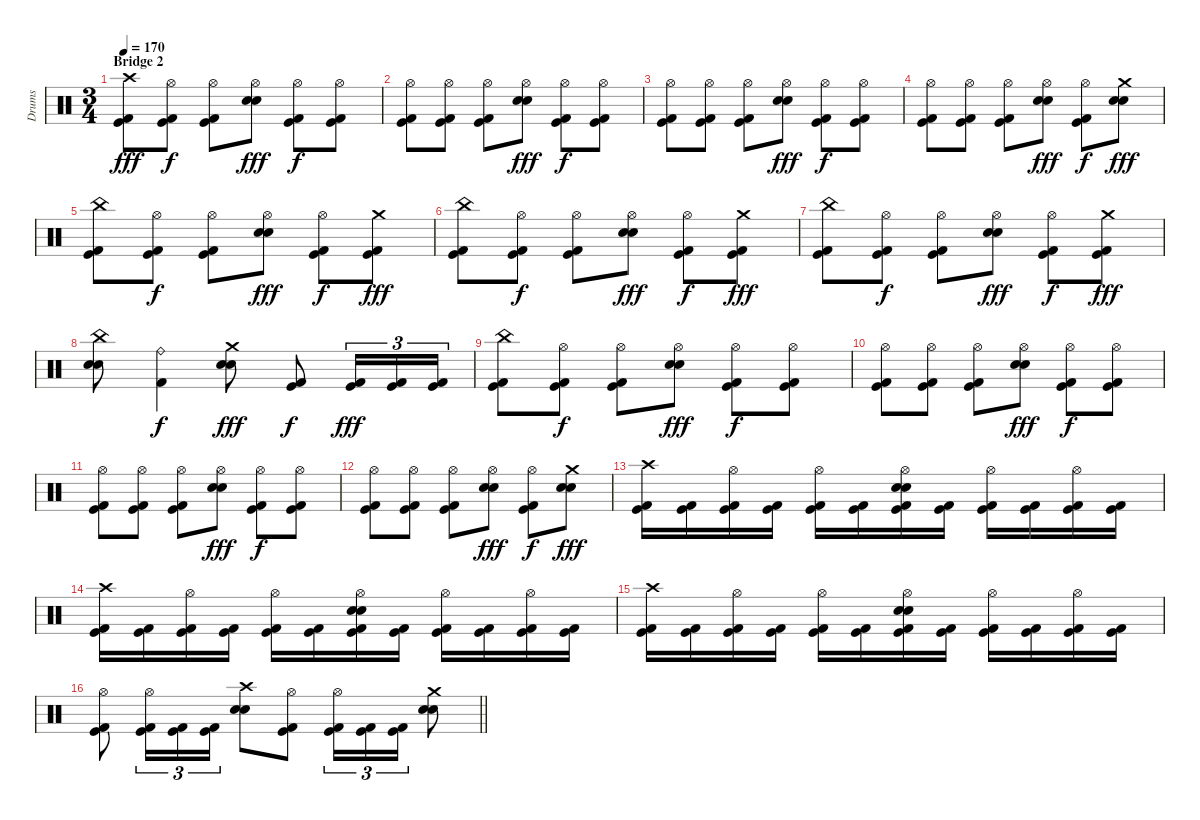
\track ("Drums" "Drums") {instrument percussion}
\staff {score}
\articulation defaults
\ts (3 4)
\section ("" "Bridge 2")
\tempo 170
\clef neutral
\ks c
("Crash high (hit)" "Kick (hit)" "Kick (hit) 2").8{dy fff} ("Hi-Hat (open)" "Kick (hit)" "Kick (hit) 2").8{dy f} ("Hi-Hat (open)" "Kick (hit)" "Kick (hit) 2").8 ("Hi-Hat (open)" "Electric Snare (hit)" "Electric Snare (hit)").8{dy fff} ("Hi-Hat (open)" "Kick (hit)" "Kick (hit) 2").8{dy f} ("Hi-Hat (open)" "Kick (hit)" "Kick (hit) 2").8 |
("Hi-Hat (open)" "Kick (hit)" "Kick (hit) 2").8 ("Hi-Hat (open)" "Kick (hit)" "Kick (hit) 2").8 ("Hi-Hat (open)" "Kick (hit)" "Kick (hit) 2").8 ("Hi-Hat (open)" "Electric Snare (hit)" "Electric Snare (hit)").8{dy fff} ("Hi-Hat (open)" "Kick (hit)" "Kick (hit) 2").8{dy f} ("Hi-Hat (open)" "Kick (hit)" "Kick (hit) 2").8 |
("Hi-Hat (open)" "Kick (hit)" "Kick (hit) 2").8 ("Hi-Hat (open)" "Kick (hit)" "Kick (hit) 2").8 ("Hi-Hat (open)" "Kick (hit)" "Kick (hit) 2").8 ("Hi-Hat (open)" "Electric Snare (hit)" "Electric Snare (hit)").8{dy fff} ("Hi-Hat (open)" "Kick (hit)" "Kick (hit) 2").8{dy f} ("Hi-Hat (open)" "Kick (hit)" "Kick (hit) 2").8 |
("Hi-Hat (open)" "Kick (hit)" "Kick (hit) 2").8 ("Hi-Hat (open)" "Kick (hit)" "Kick (hit) 2").8 ("Hi-Hat (open)" "Kick (hit)" "Kick (hit) 2").8 ("Hi-Hat (open)" "Electric Snare (hit)" "Electric Snare (hit)").8{dy fff} ("Hi-Hat (open)" "Kick (hit)" "Kick (hit) 2").8{dy f} ("Crash medium (hit)" "Electric Snare (hit)" "Electric Snare (hit)").8{dy fff} |
("China (hit)" "Kick (hit)" "Kick (hit) 2").8 ("Hi-Hat (open)" "Kick (hit)" "Kick (hit) 2").8{dy f} ("Hi-Hat (open)" "Kick (hit)" "Kick (hit) 2").8 ("Hi-Hat (open)" "Electric Snare (hit)" "Electric Snare (hit)").8{dy fff} ("Hi-Hat (open)" "Kick (hit)" "Kick (hit) 2").8{dy f} ("Crash medium (hit)" "Kick (hit)" "Kick (hit) 2").8{dy fff} |
("China (hit)" "Kick (hit)" "Kick (hit) 2").8 ("Hi-Hat (open)" "Kick (hit)" "Kick (hit) 2").8{dy f} ("Hi-Hat (open)" "Kick (hit)" "Kick (hit) 2").8 ("Hi-Hat (open)" "Electric Snare (hit)" "Electric Snare (hit)").8{dy fff} ("Hi-Hat (open)" "Kick (hit)" "Kick (hit) 2").8{dy f} ("Crash medium (hit)" "Kick (hit)" "Kick (hit) 2").8{dy fff} |
("China (hit)" "Kick (hit)" "Kick (hit) 2").8 ("Hi-Hat (open)" "Kick (hit)" "Kick (hit) 2").8{dy f} ("Hi-Hat (open)" "Kick (hit)" "Kick (hit) 2").8 ("Hi-Hat (open)" "Electric Snare (hit)" "Electric Snare (hit)").8{dy fff} ("Hi-Hat (open)" "Kick (hit)" "Kick (hit) 2").8{dy f} ("Crash medium (hit)" "Kick (hit)" "Kick (hit) 2").8{dy fff} |
("China (hit)" "Electric Snare (hit)" "Electric Snare (hit)").8 ("Ride (bell)" "Kick (hit) 2").4{dy f} ("Crash medium (hit)" "Electric Snare (hit)" "Electric Snare (hit)").8{dy fff} ("Kick (hit)" "Kick (hit) 2").8{dy f} ("Kick (hit)" "Kick (hit) 2").16{tu (3 2) dy fff} ("Kick (hit)" "Kick (hit) 2").16{tu (3 2)} ("Kick (hit)" "Kick (hit) 2").16{tu (3 2)} |
("China (hit)" "Kick (hit)" "Kick (hit) 2").8 ("Hi-Hat (open)" "Kick (hit)" "Kick (hit) 2").8{dy f} ("Hi-Hat (open)" "Kick (hit)" "Kick (hit) 2").8 ("Hi-Hat (open)" "Electric Snare (hit)" "Electric Snare (hit)").8{dy fff} ("Hi-Hat (open)" "Kick (hit)" "Kick (hit) 2").8{dy f} ("Hi-Hat (open)" "Kick (hit)" "Kick (hit) 2").8 |
("Hi-Hat (open)" "Kick (hit)" "Kick (hit) 2").8 ("Hi-Hat (open)" "Kick (hit)" "Kick (hit) 2").8 ("Hi-Hat (open)" "Kick (hit)" "Kick (hit) 2").8 ("Hi-Hat (open)" "Electric Snare (hit)" "Electric Snare (hit)").8{dy fff} ("Hi-Hat (open)" "Kick (hit)" "Kick (hit) 2").8{dy f} ("Hi-Hat (open)" "Kick (hit)" "Kick (hit) 2").8 |
("Hi-Hat (open)" "Kick (hit)" "Kick (hit) 2").8 ("Hi-Hat (open)" "Kick (hit)" "Kick (hit) 2").8 ("Hi-Hat (open)" "Kick (hit)" "Kick (hit) 2").8 ("Hi-Hat (open)" "Electric Snare (hit)" "Electric Snare (hit)").8{dy fff} ("Hi-Hat (open)" "Kick (hit)" "Kick (hit) 2").8{dy f} ("Hi-Hat (open)" "Kick (hit)" "Kick (hit) 2").8 |
("Hi-Hat (open)" "Kick (hit)" "Kick (hit) 2").8 ("Hi-Hat (open)" "Kick (hit)" "Kick (hit) 2").8 ("Hi-Hat (open)" "Kick (hit)" "Kick (hit) 2").8 ("Hi-Hat (open)" "Electric Snare (hit)" "Electric Snare (hit)").8{dy fff} ("Hi-Hat (open)" "Kick (hit)" "Kick (hit) 2").8{dy f} ("Crash medium (hit)" "Electric Snare (hit)" "Electric Snare (hit)").8{dy fff} |
("Crash high (hit)" "Kick (hit)" "Kick (hit) 2").16 ("Kick (hit)" "Kick (hit) 2").16 ("Hi-Hat (open)" "Kick (hit)" "Kick (hit) 2").16 ("Kick (hit)" "Kick (hit) 2").16 ("Hi-Hat (open)" "Kick (hit)" "Kick (hit) 2").16 ("Kick (hit)" "Kick (hit) 2").16 ("Hi-Hat (open)" "Electric Snare (hit)" "Electric Snare (hit)" "Kick (hit)" "Kick (hit) 2").16 ("Kick (hit)" "Kick (hit) 2").16 ("Hi-Hat (open)" "Kick (hit)" "Kick (hit) 2").16 ("Kick (hit)" "Kick (hit) 2").16 ("Hi-Hat (open)" "Kick (hit)" "Kick (hit) 2").16 ("Kick (hit)" "Kick (hit) 2").16 |
("Crash high (hit)" "Kick (hit)" "Kick (hit) 2").16 ("Kick (hit)" "Kick (hit) 2").16 ("Hi-Hat (open)" "Kick (hit)" "Kick (hit) 2").16 ("Kick (hit)" "Kick (hit) 2").16 ("Hi-Hat (open)" "Kick (hit)" "Kick (hit) 2").16 ("Kick (hit)" "Kick (hit) 2").16 ("Hi-Hat (open)" "Electric Snare (hit)" "Electric Snare (hit)" "Kick (hit)" "Kick (hit) 2").16 ("Kick (hit)" "Kick (hit) 2").16 ("Hi-Hat (open)" "Kick (hit)" "Kick (hit) 2").16 ("Kick (hit)" "Kick (hit) 2").16 ("Hi-Hat (open)" "Kick (hit)" "Kick (hit) 2").16 ("Kick (hit)" "Kick (hit) 2").16 |
("Crash high (hit)" "Kick (hit)" "Kick (hit) 2").16 ("Kick (hit)" "Kick (hit) 2").16 ("Hi-Hat (open)" "Kick (hit)" "Kick (hit) 2").16 ("Kick (hit)" "Kick (hit) 2").16 ("Hi-Hat (open)" "Kick (hit)" "Kick (hit) 2").16 ("Kick (hit)" "Kick (hit) 2").16 ("Hi-Hat (open)" "Electric Snare (hit)" "Electric Snare (hit)" "Kick (hit)" "Kick (hit) 2").16 ("Kick (hit)" "Kick (hit) 2").16 ("Hi-Hat (open)" "Kick (hit)" "Kick (hit) 2").16 ("Kick (hit)" "Kick (hit) 2").16 ("Hi-Hat (open)" "Kick (hit)" "Kick (hit) 2").16 ("Kick (hit)" "Kick (hit) 2").16 |
\barLineRight lightlight
("Hi-Hat (open)" "Kick (hit)" "Kick (hit) 2").8 ("Hi-Hat (open)" "Kick (hit)" "Kick (hit) 2").16{tu (3 2)} ("Kick (hit)" "Kick (hit) 2").16{tu (3 2)} ("Kick (hit)" "Kick (hit) 2").16{tu (3 2)} ("Crash high (hit)" "Electric Snare (hit)" "Electric Snare (hit)").8 ("Hi-Hat (open)" "Kick (hit)" "Kick (hit) 2").8 ("Hi-Hat (open)" "Kick (hit)" "Kick (hit) 2").16{tu (3 2)} ("Kick (hit)" "Kick (hit) 2").16{tu (3 2)} ("Kick (hit)" "Kick (hit) 2").16{tu (3 2)} ("Crash medium (hit)" "Electric Snare (hit)" "Electric Snare (hit)").8
